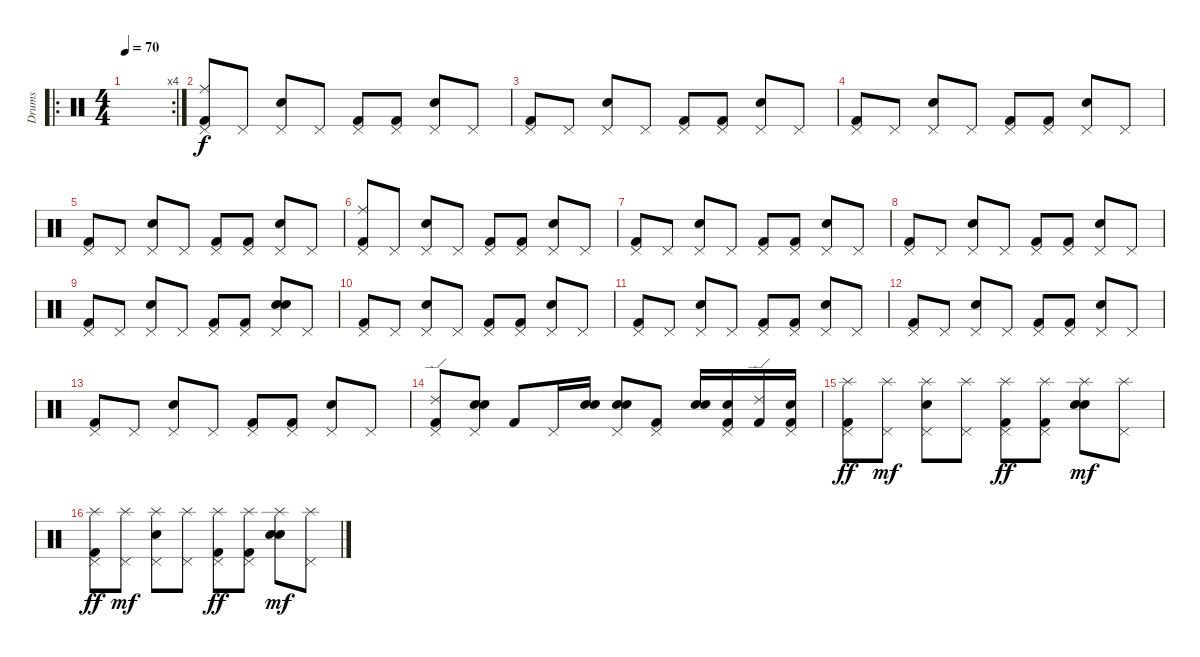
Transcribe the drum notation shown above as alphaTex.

\track ("Drums" "Drums") {instrument percussion}
\staff {score}
\articulation defaults
\ro
\rc 4
\ts (4 4)
\tempo 70
\clef neutral
\ks c
|
("Pedal Hi-Hat (hit)" "Ride (middle)" "Kick (hit) 2").8 "Pedal Hi-Hat (hit)".8 ("Pedal Hi-Hat (hit)" "Snare (hit) 2").8 "Pedal Hi-Hat (hit)".8 ("Pedal Hi-Hat (hit)" "Kick (hit) 2").8 ("Pedal Hi-Hat (hit)" "Kick (hit) 2").8 ("Pedal Hi-Hat (hit)" "Snare (hit) 2").8 "Pedal Hi-Hat (hit)".8 |
("Pedal Hi-Hat (hit)" "Kick (hit) 2").8 "Pedal Hi-Hat (hit)".8 ("Pedal Hi-Hat (hit)" "Snare (hit) 2").8 "Pedal Hi-Hat (hit)".8 ("Pedal Hi-Hat (hit)" "Kick (hit) 2").8 ("Pedal Hi-Hat (hit)" "Kick (hit) 2").8 ("Pedal Hi-Hat (hit)" "Snare (hit) 2").8 "Pedal Hi-Hat (hit)".8 |
("Pedal Hi-Hat (hit)" "Kick (hit) 2").8 "Pedal Hi-Hat (hit)".8 ("Pedal Hi-Hat (hit)" "Snare (hit) 2").8 "Pedal Hi-Hat (hit)".8 ("Pedal Hi-Hat (hit)" "Kick (hit) 2").8 ("Pedal Hi-Hat (hit)" "Kick (hit) 2").8 ("Pedal Hi-Hat (hit)" "Snare (hit) 2").8 "Pedal Hi-Hat (hit)".8 |
("Pedal Hi-Hat (hit)" "Kick (hit) 2").8 "Pedal Hi-Hat (hit)".8 ("Pedal Hi-Hat (hit)" "Snare (hit) 2").8 "Pedal Hi-Hat (hit)".8 ("Pedal Hi-Hat (hit)" "Kick (hit) 2").8 ("Pedal Hi-Hat (hit)" "Kick (hit) 2").8 ("Pedal Hi-Hat (hit)" "Snare (hit) 2").8 "Pedal Hi-Hat (hit)".8 |
("Pedal Hi-Hat (hit)" "Ride (middle)" "Kick (hit) 2").8 "Pedal Hi-Hat (hit)".8 ("Pedal Hi-Hat (hit)" "Snare (hit) 2").8 "Pedal Hi-Hat (hit)".8 ("Pedal Hi-Hat (hit)" "Kick (hit) 2").8 ("Pedal Hi-Hat (hit)" "Kick (hit) 2").8 ("Pedal Hi-Hat (hit)" "Snare (hit) 2").8 "Pedal Hi-Hat (hit)".8 |
("Pedal Hi-Hat (hit)" "Kick (hit) 2").8 "Pedal Hi-Hat (hit)".8 ("Pedal Hi-Hat (hit)" "Snare (hit) 2").8 "Pedal Hi-Hat (hit)".8 ("Pedal Hi-Hat (hit)" "Kick (hit) 2").8 ("Pedal Hi-Hat (hit)" "Kick (hit) 2").8 ("Pedal Hi-Hat (hit)" "Snare (hit) 2").8 "Pedal Hi-Hat (hit)".8 |
("Pedal Hi-Hat (hit)" "Kick (hit) 2").8 "Pedal Hi-Hat (hit)".8 ("Pedal Hi-Hat (hit)" "Snare (hit) 2").8 "Pedal Hi-Hat (hit)".8 ("Pedal Hi-Hat (hit)" "Kick (hit) 2").8 ("Pedal Hi-Hat (hit)" "Kick (hit) 2").8 ("Pedal Hi-Hat (hit)" "Snare (hit) 2").8 "Pedal Hi-Hat (hit)".8 |
("Pedal Hi-Hat (hit)" "Kick (hit) 2").8 "Pedal Hi-Hat (hit)".8 ("Pedal Hi-Hat (hit)" "Snare (hit) 2").8 "Pedal Hi-Hat (hit)".8 ("Pedal Hi-Hat (hit)" "Kick (hit) 2").8 ("Pedal Hi-Hat (hit)" "Kick (hit) 2").8 ("Pedal Hi-Hat (hit)" "Electric Snare (hit)" "Snare (hit) 2").8 "Pedal Hi-Hat (hit)".8 |
("Pedal Hi-Hat (hit)" "Kick (hit) 2").8 "Pedal Hi-Hat (hit)".8 ("Pedal Hi-Hat (hit)" "Snare (hit) 2").8 "Pedal Hi-Hat (hit)".8 ("Pedal Hi-Hat (hit)" "Kick (hit) 2").8 ("Pedal Hi-Hat (hit)" "Kick (hit) 2").8 ("Pedal Hi-Hat (hit)" "Snare (hit) 2").8 "Pedal Hi-Hat (hit)".8 |
("Pedal Hi-Hat (hit)" "Kick (hit) 2").8 "Pedal Hi-Hat (hit)".8 ("Pedal Hi-Hat (hit)" "Snare (hit) 2").8 "Pedal Hi-Hat (hit)".8 ("Pedal Hi-Hat (hit)" "Kick (hit) 2").8 ("Pedal Hi-Hat (hit)" "Kick (hit) 2").8 ("Pedal Hi-Hat (hit)" "Snare (hit) 2").8 "Pedal Hi-Hat (hit)".8 |
("Pedal Hi-Hat (hit)" "Kick (hit) 2").8 "Pedal Hi-Hat (hit)".8 ("Pedal Hi-Hat (hit)" "Snare (hit) 2").8 "Pedal Hi-Hat (hit)".8 ("Pedal Hi-Hat (hit)" "Kick (hit) 2").8 ("Pedal Hi-Hat (hit)" "Kick (hit) 2").8 ("Pedal Hi-Hat (hit)" "Snare (hit) 2").8 "Pedal Hi-Hat (hit)".8 |
("Pedal Hi-Hat (hit)" "Kick (hit) 2").8 "Pedal Hi-Hat (hit)".8 ("Pedal Hi-Hat (hit)" "Snare (hit) 2").8 "Pedal Hi-Hat (hit)".8 ("Pedal Hi-Hat (hit)" "Kick (hit) 2").8 ("Pedal Hi-Hat (hit)" "Kick (hit) 2").8 ("Pedal Hi-Hat (hit)" "Snare (hit) 2").8 "Pedal Hi-Hat (hit)".8 |
("Ride (edge) 2" "Pedal Hi-Hat (hit)" "Kick (hit) 2").8 ("Pedal Hi-Hat (hit)" "Electric Snare (hit)" "Snare (hit) 2").8 "Kick (hit) 2".8 "Pedal Hi-Hat (hit)".16 ("Snare (hit) 2" "Electric Snare (hit)").16 ("Pedal Hi-Hat (hit)" "Snare (hit) 2" "Electric Snare (hit)").8 ("Pedal Hi-Hat (hit)" "Kick (hit) 2").8 ("Electric Snare (hit)" "Snare (hit) 2").16 ("Pedal Hi-Hat (hit)" "Electric Snare (hit)" "Kick (hit) 2").16 ("Ride (edge) 2" "Kick (hit) 2").16 ("Pedal Hi-Hat (hit)" "Electric Snare (hit)" "Kick (hit) 2").16 |
("Splash (hit)" "Pedal Hi-Hat (hit)" "Kick (hit) 2").8{dy ff} ("Splash (hit)" "Pedal Hi-Hat (hit)").8{dy mf} ("Splash (hit)" "Pedal Hi-Hat (hit)" "Snare (hit) 2").8 ("Splash (hit)" "Pedal Hi-Hat (hit)").8 ("Splash (hit)" "Pedal Hi-Hat (hit)" "Kick (hit) 2").8{dy ff} ("Splash (hit)" "Pedal Hi-Hat (hit)" "Kick (hit) 2").8 ("Splash (hit)" "Electric Snare (hit)" "Snare (hit) 2").8{dy mf} ("Splash (hit)" "Pedal Hi-Hat (hit)").8 |
("Splash (hit)" "Pedal Hi-Hat (hit)" "Kick (hit) 2").8{dy ff} ("Splash (hit)" "Pedal Hi-Hat (hit)").8{dy mf} ("Splash (hit)" "Pedal Hi-Hat (hit)" "Snare (hit) 2").8 ("Splash (hit)" "Pedal Hi-Hat (hit)").8 ("Splash (hit)" "Pedal Hi-Hat (hit)" "Kick (hit) 2").8{dy ff} ("Splash (hit)" "Pedal Hi-Hat (hit)" "Kick (hit) 2").8 ("Splash (hit)" "Electric Snare (hit)" "Snare (hit) 2").8{dy mf} ("Splash (hit)" "Pedal Hi-Hat (hit)").8
